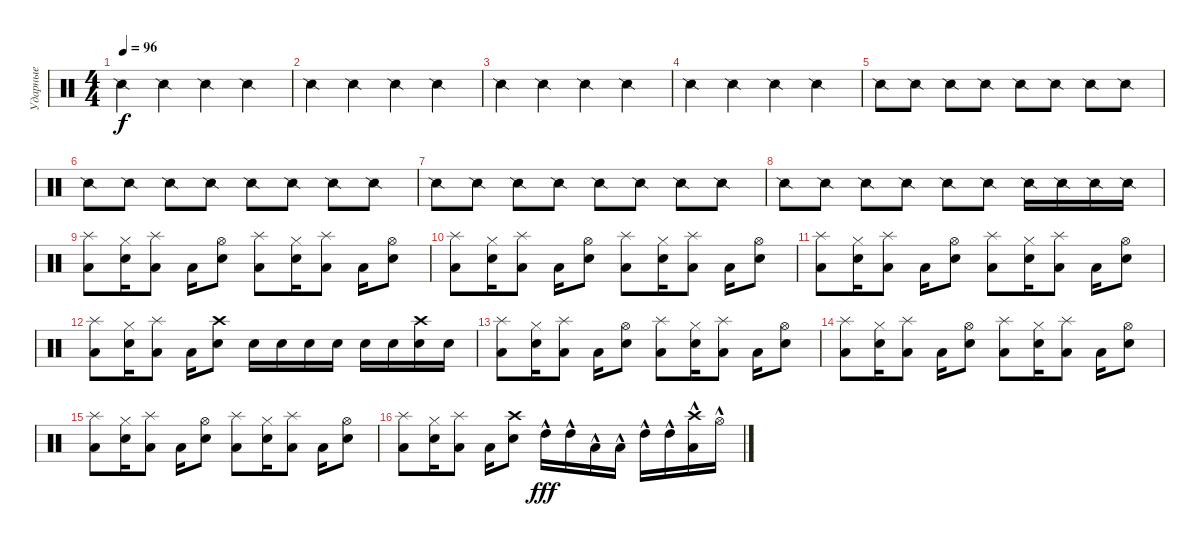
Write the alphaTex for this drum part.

\track ("Ударные" "Ударные") {instrument percussion}
\staff {score}
\articulation defaults
\ts (4 4)
\tempo 96
\clef neutral
\ks c "Snare (side stick) 2".4{dy f} "Snare (side stick) 2".4 "Snare (side stick) 2".4 "Snare (side stick) 2".4
|
"Snare (side stick) 2".4 "Snare (side stick) 2".4 "Snare (side stick) 2".4 "Snare (side stick) 2".4 |
"Snare (side stick) 2".4 "Snare (side stick) 2".4 "Snare (side stick) 2".4 "Snare (side stick) 2".4 |
"Snare (side stick) 2".4 "Snare (side stick) 2".4 "Snare (side stick) 2".4 "Snare (side stick) 2".4 |
"Snare (side stick) 2".8 "Snare (side stick) 2".8 "Snare (side stick) 2".8 "Snare (side stick) 2".8 "Snare (side stick) 2".8 "Snare (side stick) 2".8 "Snare (side stick) 2".8 "Snare (side stick) 2".8 |
"Snare (side stick) 2".8 "Snare (side stick) 2".8 "Snare (side stick) 2".8 "Snare (side stick) 2".8 "Snare (side stick) 2".8 "Snare (side stick) 2".8 "Snare (side stick) 2".8 "Snare (side stick) 2".8 |
"Snare (side stick) 2".8 "Snare (side stick) 2".8 "Snare (side stick) 2".8 "Snare (side stick) 2".8 "Snare (side stick) 2".8 "Snare (side stick) 2".8 "Snare (side stick) 2".8 "Snare (side stick) 2".8 |
"Snare (side stick) 2".8 "Snare (side stick) 2".8 "Snare (side stick) 2".8 "Snare (side stick) 2".8 "Snare (side stick) 2".8 "Snare (side stick) 2".8 "Snare (side stick) 2".16 "Snare (side stick) 2".16 "Snare (side stick) 2".16 "Snare (side stick) 2".16 |
("Low Floor Tom (hit)" "Splash (hit)").8 ("Electric Snare (hit)" "Hi-Hat (closed)").16 ("Low Floor Tom (hit)" "Splash (hit)").8 "Low Floor Tom (hit)".16 ("Electric Snare (hit)" "Hi-Hat (open)").8 ("Low Floor Tom (hit)" "Splash (hit)").8 ("Electric Snare (hit)" "Hi-Hat (closed)").16 ("Low Floor Tom (hit)" "Splash (hit)").8 "Low Floor Tom (hit)".16 ("Electric Snare (hit)" "Hi-Hat (open)").8 |
("Low Floor Tom (hit)" "Splash (hit)").8 ("Electric Snare (hit)" "Hi-Hat (closed)").16 ("Low Floor Tom (hit)" "Splash (hit)").8 "Low Floor Tom (hit)".16 ("Electric Snare (hit)" "Hi-Hat (open)").8 ("Low Floor Tom (hit)" "Splash (hit)").8 ("Electric Snare (hit)" "Hi-Hat (closed)").16 ("Low Floor Tom (hit)" "Splash (hit)").8 "Low Floor Tom (hit)".16 ("Electric Snare (hit)" "Hi-Hat (open)").8 |
("Low Floor Tom (hit)" "Splash (hit)").8 ("Electric Snare (hit)" "Hi-Hat (closed)").16 ("Low Floor Tom (hit)" "Splash (hit)").8 "Low Floor Tom (hit)".16 ("Electric Snare (hit)" "Hi-Hat (open)").8 ("Low Floor Tom (hit)" "Splash (hit)").8 ("Electric Snare (hit)" "Hi-Hat (closed)").16 ("Low Floor Tom (hit)" "Splash (hit)").8 "Low Floor Tom (hit)".16 ("Electric Snare (hit)" "Hi-Hat (open)").8 |
("Low Floor Tom (hit)" "Splash (hit)").8 ("Electric Snare (hit)" "Hi-Hat (closed)").16 ("Low Floor Tom (hit)" "Splash (hit)").8 "Low Floor Tom (hit)".16 ("Electric Snare (hit)" "Crash high (hit)").8 "Electric Snare (hit)".16 "Electric Snare (hit)".16 "Electric Snare (hit)".16 "Electric Snare (hit)".16 "Electric Snare (hit)".16 "Electric Snare (hit)".16 ("Electric Snare (hit)" "Crash high (hit)").16 "Electric Snare (hit)".16 |
("Low Floor Tom (hit)" "Splash (hit)").8 ("Electric Snare (hit)" "Hi-Hat (closed)").16 ("Low Floor Tom (hit)" "Splash (hit)").8 "Low Floor Tom (hit)".16 ("Electric Snare (hit)" "Hi-Hat (open)").8 ("Low Floor Tom (hit)" "Splash (hit)").8 ("Electric Snare (hit)" "Hi-Hat (closed)").16 ("Low Floor Tom (hit)" "Splash (hit)").8 "Low Floor Tom (hit)".16 ("Electric Snare (hit)" "Hi-Hat (open)").8 |
("Low Floor Tom (hit)" "Splash (hit)").8 ("Electric Snare (hit)" "Hi-Hat (closed)").16 ("Low Floor Tom (hit)" "Splash (hit)").8 "Low Floor Tom (hit)".16 ("Electric Snare (hit)" "Hi-Hat (open)").8 ("Low Floor Tom (hit)" "Splash (hit)").8 ("Electric Snare (hit)" "Hi-Hat (closed)").16 ("Low Floor Tom (hit)" "Splash (hit)").8 "Low Floor Tom (hit)".16 ("Electric Snare (hit)" "Hi-Hat (open)").8 |
("Low Floor Tom (hit)" "Splash (hit)").8 ("Electric Snare (hit)" "Hi-Hat (closed)").16 ("Low Floor Tom (hit)" "Splash (hit)").8 "Low Floor Tom (hit)".16 ("Electric Snare (hit)" "Hi-Hat (open)").8 ("Low Floor Tom (hit)" "Splash (hit)").8 ("Electric Snare (hit)" "Hi-Hat (closed)").16 ("Low Floor Tom (hit)" "Splash (hit)").8 "Low Floor Tom (hit)".16 ("Electric Snare (hit)" "Hi-Hat (open)").8 |
("Low Floor Tom (hit)" "Splash (hit)").8 ("Electric Snare (hit)" "Hi-Hat (closed)").16 ("Low Floor Tom (hit)" "Splash (hit)").8 "Low Floor Tom (hit)".16 ("Electric Snare (hit)" "Crash high (hit)").8 "High Tom (hit)"{hac}.16{dy fff} "High Tom (hit)"{hac}.16 "Low Tom (hit)"{hac}.16 "Low Tom (hit)"{hac}.16 "High Tom (hit)"{hac}.16 "High Tom (hit)"{hac}.16 ("Low Tom (hit)"{hac} "Crash high (hit)").16 "Hi-Hat (open)"{hac}.16
